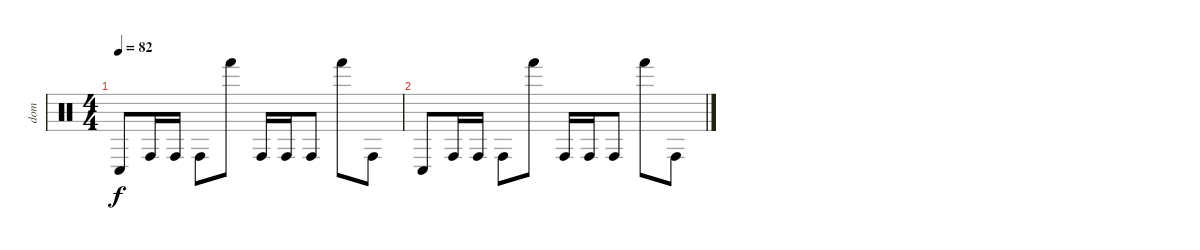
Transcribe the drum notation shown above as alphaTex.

\track ("dom" "dom") {instrument percussion}
\staff {score}
\articulation defaults
\ts (4 4)
\tempo 82
\clef neutral
\ks c "Conga low (hit)".8{dy f} "Conga high (hit)".16 "Conga high (hit)".16 "Conga high (hit)".8 "Hand (hit)".8 "Conga high (hit)".16 "Conga high (hit)".16 "Conga high (hit)".8 "Hand (hit)".8 "Conga high (hit)".8
|
"Conga low (hit)".8 "Conga high (hit)".16 "Conga high (hit)".16 "Conga high (hit)".8 "Hand (hit)".8 "Conga high (hit)".16 "Conga high (hit)".16 "Conga high (hit)".8 "Hand (hit)".8 "Conga high (hit)".8
